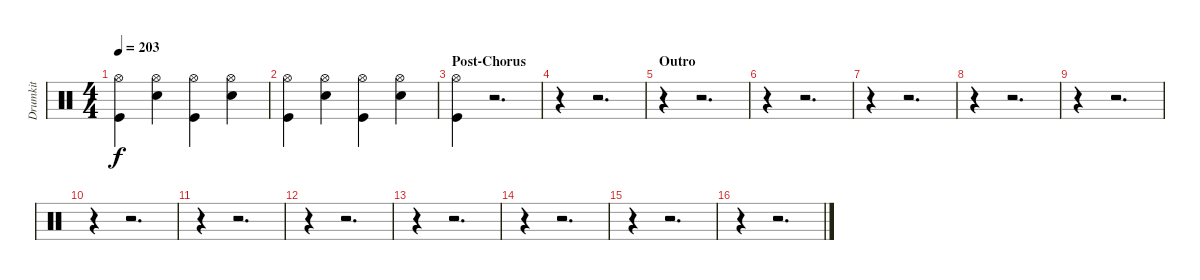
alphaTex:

\track ("Drumkit" "Drumkit") {instrument percussion}
\staff {score}
\articulation defaults
\ts (4 4)
\tempo 203
\clef neutral
\ks c
("Kick (hit)" "Hi-Hat (open)").4{dy f} ("Snare (hit) 2" "Hi-Hat (open)").4 ("Kick (hit)" "Hi-Hat (open)").4 ("Snare (hit) 2" "Hi-Hat (open)").4 |
("Kick (hit)" "Hi-Hat (open)").4 ("Snare (hit) 2" "Hi-Hat (open)").4 ("Kick (hit)" "Hi-Hat (open)").4 ("Snare (hit) 2" "Hi-Hat (open)").4 |
\section ("" "Post-Chorus")
("Kick (hit)" "Hi-Hat (open)").4 r.2{d} |
r.4 r.2{d} |
\section ("" "Outro")
r.4 r.2{d} |
r.4 r.2{d} |
r.4 r.2{d} |
r.4 r.2{d} |
r.4 r.2{d} |
r.4 r.2{d} |
r.4 r.2{d} |
r.4 r.2{d} |
r.4 r.2{d} |
r.4 r.2{d} |
r.4 r.2{d} |
r.4 r.2{d}
